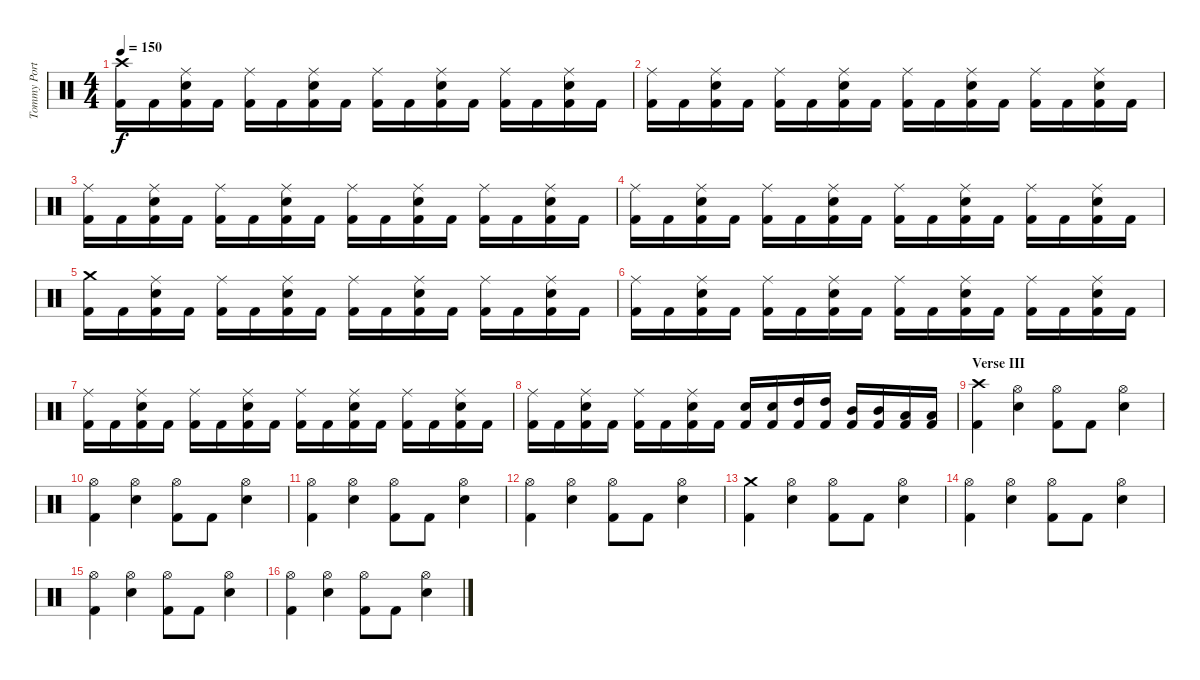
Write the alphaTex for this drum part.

\track ("Tommy Portino - Drums" "Tommy Port") {instrument percussion}
\staff {score}
\articulation defaults
\ts (4 4)
\tempo 150
\clef neutral
\ks c
("Crash high (hit)" "Kick (hit) 2").16{dy f} "Kick (hit) 2".16 ("Ride (middle)" "Electric Snare (hit)" "Kick (hit) 2").16 "Kick (hit) 2".16 ("Ride (middle)" "Kick (hit) 2").16 "Kick (hit) 2".16 ("Ride (middle)" "Electric Snare (hit)" "Kick (hit) 2").16 "Kick (hit) 2".16 ("Ride (middle)" "Kick (hit) 2").16 "Kick (hit) 2".16 ("Ride (middle)" "Electric Snare (hit)" "Kick (hit) 2").16 "Kick (hit) 2".16 ("Ride (middle)" "Kick (hit) 2").16 "Kick (hit) 2".16 ("Ride (middle)" "Electric Snare (hit)" "Kick (hit) 2").16 "Kick (hit) 2".16 |
("Ride (middle)" "Kick (hit) 2").16 "Kick (hit) 2".16 ("Ride (middle)" "Electric Snare (hit)" "Kick (hit) 2").16 "Kick (hit) 2".16 ("Ride (middle)" "Kick (hit) 2").16 "Kick (hit) 2".16 ("Ride (middle)" "Electric Snare (hit)" "Kick (hit) 2").16 "Kick (hit) 2".16 ("Ride (middle)" "Kick (hit) 2").16 "Kick (hit) 2".16 ("Ride (middle)" "Electric Snare (hit)" "Kick (hit) 2").16 "Kick (hit) 2".16 ("Ride (middle)" "Kick (hit) 2").16 "Kick (hit) 2".16 ("Ride (middle)" "Electric Snare (hit)" "Kick (hit) 2").16 "Kick (hit) 2".16 |
("Ride (middle)" "Kick (hit) 2").16 "Kick (hit) 2".16 ("Ride (middle)" "Electric Snare (hit)" "Kick (hit) 2").16 "Kick (hit) 2".16 ("Ride (middle)" "Kick (hit) 2").16 "Kick (hit) 2".16 ("Ride (middle)" "Electric Snare (hit)" "Kick (hit) 2").16 "Kick (hit) 2".16 ("Ride (middle)" "Kick (hit) 2").16 "Kick (hit) 2".16 ("Ride (middle)" "Electric Snare (hit)" "Kick (hit) 2").16 "Kick (hit) 2".16 ("Ride (middle)" "Kick (hit) 2").16 "Kick (hit) 2".16 ("Ride (middle)" "Electric Snare (hit)" "Kick (hit) 2").16 "Kick (hit) 2".16 |
("Ride (middle)" "Kick (hit) 2").16 "Kick (hit) 2".16 ("Ride (middle)" "Electric Snare (hit)" "Kick (hit) 2").16 "Kick (hit) 2".16 ("Ride (middle)" "Kick (hit) 2").16 "Kick (hit) 2".16 ("Ride (middle)" "Electric Snare (hit)" "Kick (hit) 2").16 "Kick (hit) 2".16 ("Ride (middle)" "Kick (hit) 2").16 "Kick (hit) 2".16 ("Ride (middle)" "Electric Snare (hit)" "Kick (hit) 2").16 "Kick (hit) 2".16 ("Ride (middle)" "Kick (hit) 2").16 "Kick (hit) 2".16 ("Ride (middle)" "Electric Snare (hit)" "Kick (hit) 2").16 "Kick (hit) 2".16 |
("Crash medium (hit)" "Kick (hit) 2").16 "Kick (hit) 2".16 ("Ride (middle)" "Electric Snare (hit)" "Kick (hit) 2").16 "Kick (hit) 2".16 ("Ride (middle)" "Kick (hit) 2").16 "Kick (hit) 2".16 ("Ride (middle)" "Electric Snare (hit)" "Kick (hit) 2").16 "Kick (hit) 2".16 ("Ride (middle)" "Kick (hit) 2").16 "Kick (hit) 2".16 ("Ride (middle)" "Electric Snare (hit)" "Kick (hit) 2").16 "Kick (hit) 2".16 ("Ride (middle)" "Kick (hit) 2").16 "Kick (hit) 2".16 ("Ride (middle)" "Electric Snare (hit)" "Kick (hit) 2").16 "Kick (hit) 2".16 |
("Ride (middle)" "Kick (hit) 2").16 "Kick (hit) 2".16 ("Ride (middle)" "Electric Snare (hit)" "Kick (hit) 2").16 "Kick (hit) 2".16 ("Ride (middle)" "Kick (hit) 2").16 "Kick (hit) 2".16 ("Ride (middle)" "Electric Snare (hit)" "Kick (hit) 2").16 "Kick (hit) 2".16 ("Ride (middle)" "Kick (hit) 2").16 "Kick (hit) 2".16 ("Ride (middle)" "Electric Snare (hit)" "Kick (hit) 2").16 "Kick (hit) 2".16 ("Ride (middle)" "Kick (hit) 2").16 "Kick (hit) 2".16 ("Ride (middle)" "Electric Snare (hit)" "Kick (hit) 2").16 "Kick (hit) 2".16 |
("Ride (middle)" "Kick (hit) 2").16 "Kick (hit) 2".16 ("Ride (middle)" "Electric Snare (hit)" "Kick (hit) 2").16 "Kick (hit) 2".16 ("Ride (middle)" "Kick (hit) 2").16 "Kick (hit) 2".16 ("Ride (middle)" "Electric Snare (hit)" "Kick (hit) 2").16 "Kick (hit) 2".16 ("Ride (middle)" "Kick (hit) 2").16 "Kick (hit) 2".16 ("Ride (middle)" "Electric Snare (hit)" "Kick (hit) 2").16 "Kick (hit) 2".16 ("Ride (middle)" "Kick (hit) 2").16 "Kick (hit) 2".16 ("Ride (middle)" "Electric Snare (hit)" "Kick (hit) 2").16 "Kick (hit) 2".16 |
("Ride (middle)" "Kick (hit) 2").16 "Kick (hit) 2".16 ("Ride (middle)" "Electric Snare (hit)" "Kick (hit) 2").16 "Kick (hit) 2".16 ("Ride (middle)" "Kick (hit) 2").16 "Kick (hit) 2".16 ("Ride (middle)" "Electric Snare (hit)" "Kick (hit) 2").16 "Kick (hit) 2".16 ("Electric Snare (hit)" "Kick (hit) 2").16 ("Electric Snare (hit)" "Kick (hit) 2").16 ("High Tom (hit)" "Kick (hit) 2").16 ("High Tom (hit)" "Kick (hit) 2").16 ("Mid Tom (hit)" "Kick (hit) 2").16 ("Mid Tom (hit)" "Kick (hit) 2").16 ("Low Tom (hit)" "Kick (hit) 2").16 ("Low Tom (hit)" "Kick (hit) 2").16 |
\section ("" "Verse III")
("Crash high (hit)" "Kick (hit) 2").4 ("Hi-Hat (open)" "Electric Snare (hit)").4 ("Hi-Hat (open)" "Kick (hit) 2").8 "Kick (hit) 2".8 ("Hi-Hat (open)" "Electric Snare (hit)").4 |
("Hi-Hat (open)" "Kick (hit) 2").4 ("Hi-Hat (open)" "Electric Snare (hit)").4 ("Hi-Hat (open)" "Kick (hit) 2").8 "Kick (hit) 2".8 ("Hi-Hat (open)" "Electric Snare (hit)").4 |
("Hi-Hat (open)" "Kick (hit) 2").4 ("Hi-Hat (open)" "Electric Snare (hit)").4 ("Hi-Hat (open)" "Kick (hit) 2").8 "Kick (hit) 2".8 ("Hi-Hat (open)" "Electric Snare (hit)").4 |
("Hi-Hat (open)" "Kick (hit) 2").4 ("Hi-Hat (open)" "Electric Snare (hit)").4 ("Hi-Hat (open)" "Kick (hit) 2").8 "Kick (hit) 2".8 ("Hi-Hat (open)" "Electric Snare (hit)").4 |
("Crash medium (hit)" "Kick (hit) 2").4 ("Hi-Hat (open)" "Electric Snare (hit)").4 ("Hi-Hat (open)" "Kick (hit) 2").8 "Kick (hit) 2".8 ("Hi-Hat (open)" "Electric Snare (hit)").4 |
("Hi-Hat (open)" "Kick (hit) 2").4 ("Hi-Hat (open)" "Electric Snare (hit)").4 ("Hi-Hat (open)" "Kick (hit) 2").8 "Kick (hit) 2".8 ("Hi-Hat (open)" "Electric Snare (hit)").4 |
("Hi-Hat (open)" "Kick (hit) 2").4 ("Hi-Hat (open)" "Electric Snare (hit)").4 ("Hi-Hat (open)" "Kick (hit) 2").8 "Kick (hit) 2".8 ("Hi-Hat (open)" "Electric Snare (hit)").4 |
("Hi-Hat (open)" "Kick (hit) 2").4 ("Hi-Hat (open)" "Electric Snare (hit)").4 ("Hi-Hat (open)" "Kick (hit) 2").8 "Kick (hit) 2".8 ("Hi-Hat (open)" "Electric Snare (hit)").4
